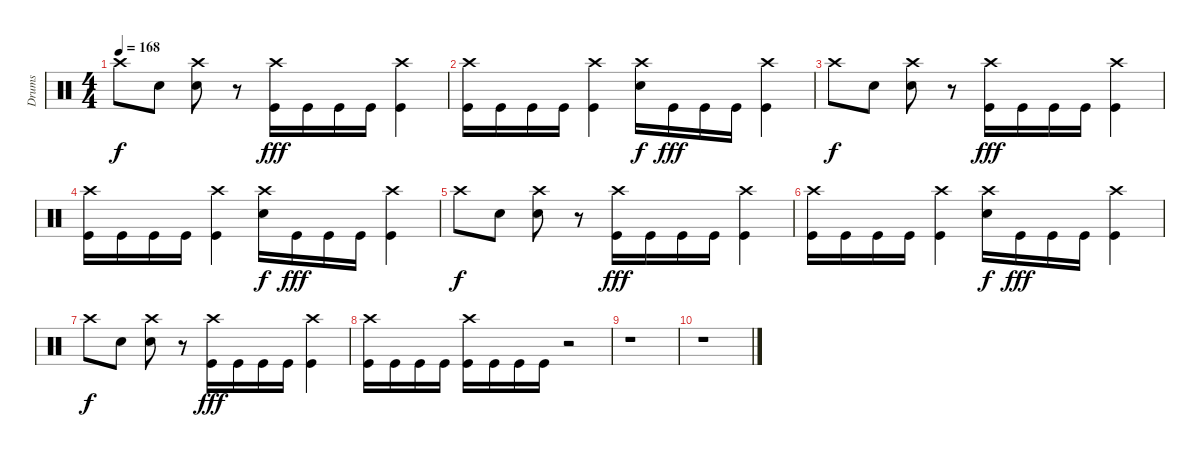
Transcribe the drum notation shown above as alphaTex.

\track ("Drums" "Drums") {instrument percussion}
\staff {score}
\articulation defaults
\ts (4 4)
\tempo 168
\clef neutral
\ks c "Crash high (hit)".8{dy f} "Snare (hit) 2".8
("Crash high (hit)" "Snare (hit) 2").8 r.8 ("Crash high (hit)" "Kick (hit)").16{dy fff} "Kick (hit)".16 "Kick (hit)".16 "Kick (hit)".16 ("Crash high (hit)" "Kick (hit)").4 |
("Crash high (hit)" "Kick (hit)").16 "Kick (hit)".16 "Kick (hit)".16 "Kick (hit)".16 ("Crash high (hit)" "Kick (hit)").4 ("Crash high (hit)" "Snare (hit) 2").16{dy f} "Kick (hit)".16{dy fff} "Kick (hit)".16 "Kick (hit)".16 ("Crash high (hit)" "Kick (hit)").4 |
"Crash high (hit)".8{dy f} "Snare (hit) 2".8 ("Crash high (hit)" "Snare (hit) 2").8 r.8 ("Crash high (hit)" "Kick (hit)").16{dy fff} "Kick (hit)".16 "Kick (hit)".16 "Kick (hit)".16 ("Crash high (hit)" "Kick (hit)").4 |
("Crash high (hit)" "Kick (hit)").16 "Kick (hit)".16 "Kick (hit)".16 "Kick (hit)".16 ("Crash high (hit)" "Kick (hit)").4 ("Crash high (hit)" "Snare (hit) 2").16{dy f} "Kick (hit)".16{dy fff} "Kick (hit)".16 "Kick (hit)".16 ("Crash high (hit)" "Kick (hit)").4 |
"Crash high (hit)".8{dy f} "Snare (hit) 2".8 ("Crash high (hit)" "Snare (hit) 2").8 r.8 ("Crash high (hit)" "Kick (hit)").16{dy fff} "Kick (hit)".16 "Kick (hit)".16 "Kick (hit)".16 ("Crash high (hit)" "Kick (hit)").4 |
("Crash high (hit)" "Kick (hit)").16 "Kick (hit)".16 "Kick (hit)".16 "Kick (hit)".16 ("Crash high (hit)" "Kick (hit)").4 ("Crash high (hit)" "Snare (hit) 2").16{dy f} "Kick (hit)".16{dy fff} "Kick (hit)".16 "Kick (hit)".16 ("Crash high (hit)" "Kick (hit)").4 |
"Crash high (hit)".8{dy f} "Snare (hit) 2".8 ("Crash high (hit)" "Snare (hit) 2").8 r.8 ("Crash high (hit)" "Kick (hit)").16{dy fff} "Kick (hit)".16 "Kick (hit)".16 "Kick (hit)".16 ("Crash high (hit)" "Kick (hit)").4 |
("Crash high (hit)" "Kick (hit)").16 "Kick (hit)".16 "Kick (hit)".16 "Kick (hit)".16 ("Crash high (hit)" "Kick (hit)").16 "Kick (hit)".16 "Kick (hit)".16 "Kick (hit)".16 r.2 |
r.1 |
r.1
